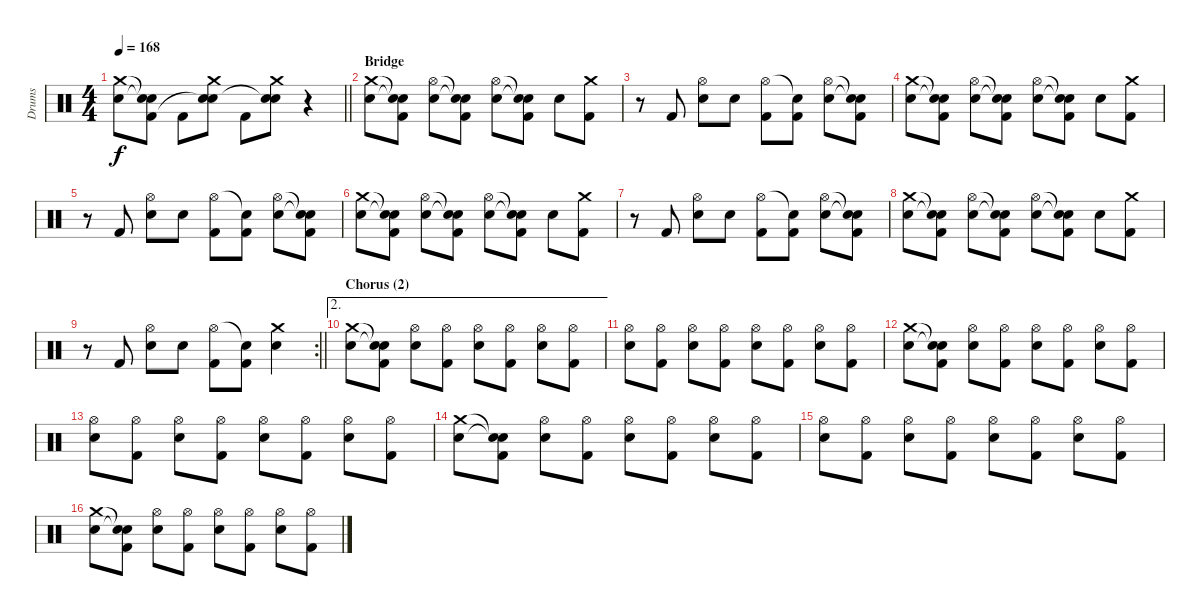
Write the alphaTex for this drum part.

\track ("Drums" "Drums") {instrument percussion}
\staff {score}
\articulation defaults
\ts (4 4)
\tempo 168
\clef neutral
\barLineRight lightlight
\ks c
("Crash medium (hit)" "Electric Snare (hit)").8{dy f} ("Snare (hit)"{t} "Snare (hit)"{t} "Kick (hit) 2").8 "Kick (hit) 2".8 ("Crash medium (hit)" "Electric Snare (hit)" "Snare (hit)"{t}).8 "Kick (hit) 2".8 ("Crash medium (hit)" "Electric Snare (hit)" "Snare (hit)"{t}).8 r.4 |
\section ("" "Bridge")
("Crash medium (hit)" "Electric Snare (hit)").8 ("Snare (hit)"{t} "Snare (hit)"{t} "Kick (hit) 2").8 ("Hi-Hat (open)" "Electric Snare (hit)").8 ("Snare (hit)"{t} "Snare (hit)"{t} "Kick (hit) 2").8 ("Hi-Hat (open)" "Electric Snare (hit)").8 ("Snare (hit)"{t} "Snare (hit)"{t} "Kick (hit) 2").8 "Electric Snare (hit)".8 ("Crash medium (hit)" "Kick (hit) 2").8 |
r.8 "Kick (hit) 2".8 ("Hi-Hat (open)" "Electric Snare (hit)").8 "Electric Snare (hit)".8 ("Hi-Hat (open)" "Kick (hit) 2").8 ("Snare (hit)"{t} "Kick (hit) 2").8 ("Hi-Hat (open)" "Electric Snare (hit)").8 ("Snare (hit)"{t} "Snare (hit)"{t} "Kick (hit) 2").8 |
("Crash medium (hit)" "Electric Snare (hit)").8 ("Snare (hit)"{t} "Snare (hit)"{t} "Kick (hit) 2").8 ("Hi-Hat (open)" "Electric Snare (hit)").8 ("Snare (hit)"{t} "Snare (hit)"{t} "Kick (hit) 2").8 ("Hi-Hat (open)" "Electric Snare (hit)").8 ("Snare (hit)"{t} "Snare (hit)"{t} "Kick (hit) 2").8 "Electric Snare (hit)".8 ("Crash medium (hit)" "Kick (hit) 2").8 |
r.8 "Kick (hit) 2".8 ("Hi-Hat (open)" "Electric Snare (hit)").8 "Electric Snare (hit)".8 ("Hi-Hat (open)" "Kick (hit) 2").8 ("Snare (hit)"{t} "Kick (hit) 2").8 ("Hi-Hat (open)" "Electric Snare (hit)").8 ("Snare (hit)"{t} "Snare (hit)"{t} "Kick (hit) 2").8 |
("Crash medium (hit)" "Electric Snare (hit)").8 ("Snare (hit)"{t} "Snare (hit)"{t} "Kick (hit) 2").8 ("Hi-Hat (open)" "Electric Snare (hit)").8 ("Snare (hit)"{t} "Snare (hit)"{t} "Kick (hit) 2").8 ("Hi-Hat (open)" "Electric Snare (hit)").8 ("Snare (hit)"{t} "Snare (hit)"{t} "Kick (hit) 2").8 "Electric Snare (hit)".8 ("Crash medium (hit)" "Kick (hit) 2").8 |
r.8 "Kick (hit) 2".8 ("Hi-Hat (open)" "Electric Snare (hit)").8 "Electric Snare (hit)".8 ("Hi-Hat (open)" "Kick (hit) 2").8 ("Snare (hit)"{t} "Kick (hit) 2").8 ("Hi-Hat (open)" "Electric Snare (hit)").8 ("Snare (hit)"{t} "Snare (hit)"{t} "Kick (hit) 2").8 |
("Crash medium (hit)" "Electric Snare (hit)").8 ("Snare (hit)"{t} "Snare (hit)"{t} "Kick (hit) 2").8 ("Hi-Hat (open)" "Electric Snare (hit)").8 ("Snare (hit)"{t} "Snare (hit)"{t} "Kick (hit) 2").8 ("Hi-Hat (open)" "Electric Snare (hit)").8 ("Snare (hit)"{t} "Snare (hit)"{t} "Kick (hit) 2").8 "Electric Snare (hit)".8 ("Crash medium (hit)" "Kick (hit) 2").8 |
\rc 2
\barLineRight lightlight
r.8 "Kick (hit) 2".8 ("Hi-Hat (open)" "Electric Snare (hit)").8 "Electric Snare (hit)".8 ("Hi-Hat (open)" "Kick (hit) 2").8 ("Snare (hit)"{t} "Kick (hit) 2").8 ("Crash medium (hit)" "Electric Snare (hit)").4 |
\ae 2
\section ("" "Chorus (2)")
("Crash medium (hit)" "Electric Snare (hit)").8 ("Snare (hit)"{t} "Snare (hit)"{t} "Kick (hit) 2").8 ("Hi-Hat (open)" "Electric Snare (hit)").8 ("Hi-Hat (open)" "Kick (hit) 2").8 ("Hi-Hat (open)" "Electric Snare (hit)").8 ("Hi-Hat (open)" "Kick (hit) 2").8 ("Hi-Hat (open)" "Electric Snare (hit)").8 ("Hi-Hat (open)" "Kick (hit) 2").8 |
("Hi-Hat (open)" "Electric Snare (hit)").8 ("Hi-Hat (open)" "Kick (hit) 2").8 ("Hi-Hat (open)" "Electric Snare (hit)").8 ("Hi-Hat (open)" "Kick (hit) 2").8 ("Hi-Hat (open)" "Electric Snare (hit)").8 ("Hi-Hat (open)" "Kick (hit) 2").8 ("Hi-Hat (open)" "Electric Snare (hit)").8 ("Hi-Hat (open)" "Kick (hit) 2").8 |
("Crash medium (hit)" "Electric Snare (hit)").8 ("Snare (hit)"{t} "Snare (hit)"{t} "Kick (hit) 2").8 ("Hi-Hat (open)" "Electric Snare (hit)").8 ("Hi-Hat (open)" "Kick (hit) 2").8 ("Hi-Hat (open)" "Electric Snare (hit)").8 ("Hi-Hat (open)" "Kick (hit) 2").8 ("Hi-Hat (open)" "Electric Snare (hit)").8 ("Hi-Hat (open)" "Kick (hit) 2").8 |
("Hi-Hat (open)" "Electric Snare (hit)").8 ("Hi-Hat (open)" "Kick (hit) 2").8 ("Hi-Hat (open)" "Electric Snare (hit)").8 ("Hi-Hat (open)" "Kick (hit) 2").8 ("Hi-Hat (open)" "Electric Snare (hit)").8 ("Hi-Hat (open)" "Kick (hit) 2").8 ("Hi-Hat (open)" "Electric Snare (hit)").8 ("Hi-Hat (open)" "Kick (hit) 2").8 |
("Crash medium (hit)" "Electric Snare (hit)").8 ("Snare (hit)"{t} "Snare (hit)"{t} "Kick (hit) 2").8 ("Hi-Hat (open)" "Electric Snare (hit)").8 ("Hi-Hat (open)" "Kick (hit) 2").8 ("Hi-Hat (open)" "Electric Snare (hit)").8 ("Hi-Hat (open)" "Kick (hit) 2").8 ("Hi-Hat (open)" "Electric Snare (hit)").8 ("Hi-Hat (open)" "Kick (hit) 2").8 |
("Hi-Hat (open)" "Electric Snare (hit)").8 ("Hi-Hat (open)" "Kick (hit) 2").8 ("Hi-Hat (open)" "Electric Snare (hit)").8 ("Hi-Hat (open)" "Kick (hit) 2").8 ("Hi-Hat (open)" "Electric Snare (hit)").8 ("Hi-Hat (open)" "Kick (hit) 2").8 ("Hi-Hat (open)" "Electric Snare (hit)").8 ("Hi-Hat (open)" "Kick (hit) 2").8 |
("Crash medium (hit)" "Electric Snare (hit)").8 ("Snare (hit)"{t} "Snare (hit)"{t} "Kick (hit) 2").8 ("Hi-Hat (open)" "Electric Snare (hit)").8 ("Hi-Hat (open)" "Kick (hit) 2").8 ("Hi-Hat (open)" "Electric Snare (hit)").8 ("Hi-Hat (open)" "Kick (hit) 2").8 ("Hi-Hat (open)" "Electric Snare (hit)").8 ("Hi-Hat (open)" "Kick (hit) 2").8
